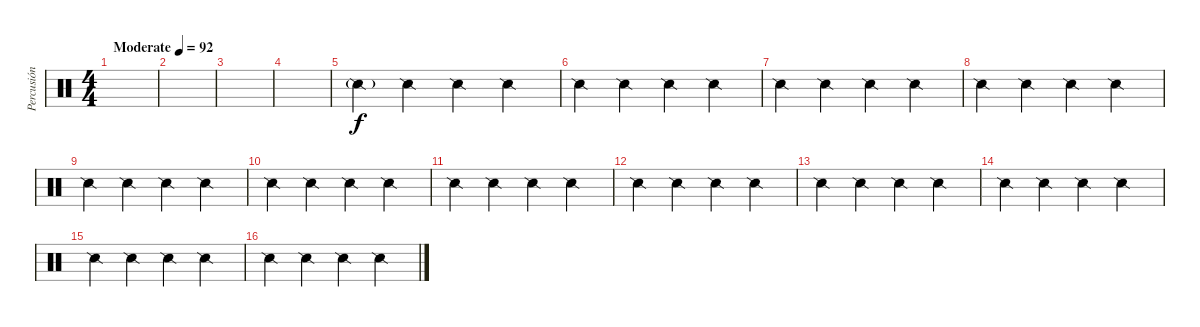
\track ("Percusión" "Percusión") {instrument percussion}
\staff {score}
\articulation defaults
\ts (4 4)
\tempo (92 "Moderate")
\clef neutral
\ks c
|
|
|
|
"Snare (side stick) 2"{g}.4 "Snare (side stick) 2".4{dy f} "Snare (side stick) 2".4 "Snare (side stick) 2".4 |
"Snare (side stick) 2".4 "Snare (side stick) 2".4 "Snare (side stick) 2".4 "Snare (side stick) 2".4 |
"Snare (side stick) 2".4 "Snare (side stick) 2".4 "Snare (side stick) 2".4 "Snare (side stick) 2".4 |
"Snare (side stick) 2".4 "Snare (side stick) 2".4 "Snare (side stick) 2".4 "Snare (side stick) 2".4 |
"Snare (side stick) 2".4 "Snare (side stick) 2".4 "Snare (side stick) 2".4 "Snare (side stick) 2".4 |
"Snare (side stick) 2".4 "Snare (side stick) 2".4 "Snare (side stick) 2".4 "Snare (side stick) 2".4 |
"Snare (side stick) 2".4 "Snare (side stick) 2".4 "Snare (side stick) 2".4 "Snare (side stick) 2".4 |
"Snare (side stick) 2".4 "Snare (side stick) 2".4 "Snare (side stick) 2".4 "Snare (side stick) 2".4 |
"Snare (side stick) 2".4 "Snare (side stick) 2".4 "Snare (side stick) 2".4 "Snare (side stick) 2".4 |
"Snare (side stick) 2".4 "Snare (side stick) 2".4 "Snare (side stick) 2".4 "Snare (side stick) 2".4 |
"Snare (side stick) 2".4 "Snare (side stick) 2".4 "Snare (side stick) 2".4 "Snare (side stick) 2".4 |
"Snare (side stick) 2".4 "Snare (side stick) 2".4 "Snare (side stick) 2".4 "Snare (side stick) 2".4
